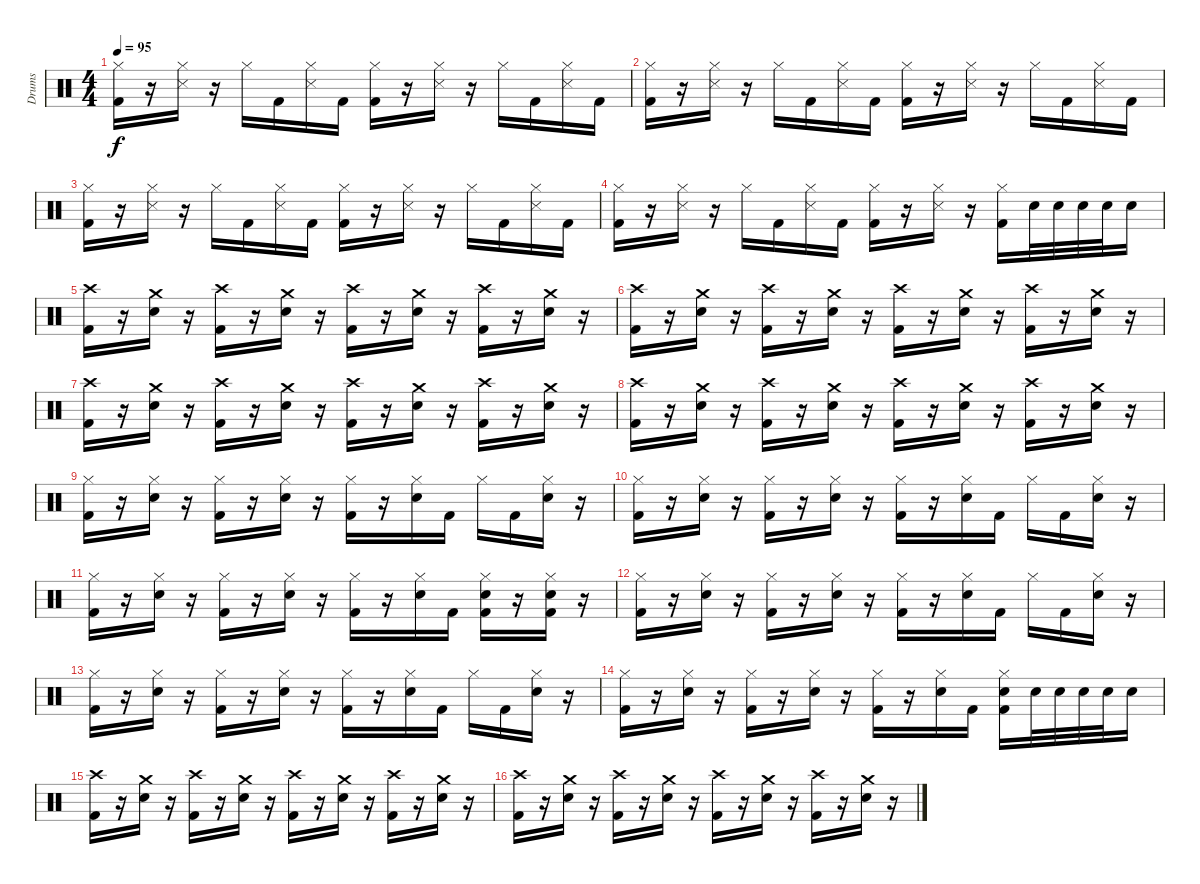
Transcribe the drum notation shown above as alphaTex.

\track ("Drums" "Drums") {instrument percussion}
\staff {score}
\articulation defaults
\ts (4 4)
\tempo 95
\clef neutral
\ks c
("Hi-Hat (closed)" "Kick (hit) 2").16{dy f} r.16 ("Hi-Hat (closed)" "Snare (side stick) 3").16 r.16 "Hi-Hat (closed)".16 "Kick (hit) 2".16 ("Hi-Hat (closed)" "Snare (side stick) 3").16 "Kick (hit) 2".16 ("Hi-Hat (closed)" "Kick (hit) 2").16 r.16 ("Hi-Hat (closed)" "Snare (side stick) 3").16 r.16 "Hi-Hat (closed)".16 "Kick (hit) 2".16 ("Hi-Hat (closed)" "Snare (side stick) 3").16 "Kick (hit) 2".16 |
("Hi-Hat (closed)" "Kick (hit) 2").16 r.16 ("Hi-Hat (closed)" "Snare (side stick) 3").16 r.16 "Hi-Hat (closed)".16 "Kick (hit) 2".16 ("Hi-Hat (closed)" "Snare (side stick) 3").16 "Kick (hit) 2".16 ("Hi-Hat (closed)" "Kick (hit) 2").16 r.16 ("Hi-Hat (closed)" "Snare (side stick) 3").16 r.16 "Hi-Hat (closed)".16 "Kick (hit) 2".16 ("Hi-Hat (closed)" "Snare (side stick) 3").16 "Kick (hit) 2".16 |
("Hi-Hat (closed)" "Kick (hit) 2").16 r.16 ("Hi-Hat (closed)" "Snare (side stick) 3").16 r.16 "Hi-Hat (closed)".16 "Kick (hit) 2".16 ("Hi-Hat (closed)" "Snare (side stick) 3").16 "Kick (hit) 2".16 ("Hi-Hat (closed)" "Kick (hit) 2").16 r.16 ("Hi-Hat (closed)" "Snare (side stick) 3").16 r.16 "Hi-Hat (closed)".16 "Kick (hit) 2".16 ("Hi-Hat (closed)" "Snare (side stick) 3").16 "Kick (hit) 2".16 |
("Hi-Hat (closed)" "Kick (hit) 2").16 r.16 ("Hi-Hat (closed)" "Snare (side stick) 3").16 r.16 "Hi-Hat (closed)".16 "Kick (hit) 2".16 ("Hi-Hat (closed)" "Snare (side stick) 3").16 "Kick (hit) 2".16 ("Hi-Hat (closed)" "Kick (hit) 2").16 r.16 ("Hi-Hat (closed)" "Snare (side stick) 3").16 r.16 ("Hi-Hat (closed)" "Kick (hit) 2").16 "Snare (hit) 2".32 "Snare (hit) 2".32 "Snare (hit) 2".32 "Snare (hit) 2".32 "Snare (hit) 2".16 |
("Crash high (hit)" "Kick (hit) 2").16 r.16 ("Crash medium (hit)" "Snare (hit) 2").16 r.16 ("Crash high (hit)" "Kick (hit) 2").16 r.16 ("Crash medium (hit)" "Snare (hit) 2").16 r.16 ("Crash high (hit)" "Kick (hit) 2").16 r.16 ("Crash medium (hit)" "Snare (hit) 2").16 r.16 ("Crash high (hit)" "Kick (hit) 2").16 r.16 ("Crash medium (hit)" "Snare (hit) 2").16 r.16 |
("Crash high (hit)" "Kick (hit) 2").16 r.16 ("Crash medium (hit)" "Snare (hit) 2").16 r.16 ("Crash high (hit)" "Kick (hit) 2").16 r.16 ("Crash medium (hit)" "Snare (hit) 2").16 r.16 ("Crash high (hit)" "Kick (hit) 2").16 r.16 ("Crash medium (hit)" "Snare (hit) 2").16 r.16 ("Crash high (hit)" "Kick (hit) 2").16 r.16 ("Crash medium (hit)" "Snare (hit) 2").16 r.16 |
("Crash high (hit)" "Kick (hit) 2").16 r.16 ("Crash medium (hit)" "Snare (hit) 2").16 r.16 ("Crash high (hit)" "Kick (hit) 2").16 r.16 ("Crash medium (hit)" "Snare (hit) 2").16 r.16 ("Crash high (hit)" "Kick (hit) 2").16 r.16 ("Crash medium (hit)" "Snare (hit) 2").16 r.16 ("Crash high (hit)" "Kick (hit) 2").16 r.16 ("Crash medium (hit)" "Snare (hit) 2").16 r.16 |
("Crash high (hit)" "Kick (hit) 2").16 r.16 ("Crash medium (hit)" "Snare (hit) 2").16 r.16 ("Crash high (hit)" "Kick (hit) 2").16 r.16 ("Crash medium (hit)" "Snare (hit) 2").16 r.16 ("Crash high (hit)" "Kick (hit) 2").16 r.16 ("Crash medium (hit)" "Snare (hit) 2").16 r.16 ("Crash high (hit)" "Kick (hit) 2").16 r.16 ("Crash medium (hit)" "Snare (hit) 2").16 r.16 |
("Hi-Hat (closed)" "Kick (hit) 2").16 r.16 ("Hi-Hat (closed)" "Snare (hit) 2").16 r.16 ("Hi-Hat (closed)" "Kick (hit) 2").16 r.16 ("Hi-Hat (closed)" "Snare (hit) 2").16 r.16 ("Hi-Hat (closed)" "Kick (hit) 2").16 r.16 ("Hi-Hat (closed)" "Snare (hit) 2").16 "Kick (hit) 2".16 "Hi-Hat (closed)".16 "Kick (hit) 2".16 ("Hi-Hat (closed)" "Snare (hit) 2").16 r.16 |
("Hi-Hat (closed)" "Kick (hit) 2").16 r.16 ("Hi-Hat (closed)" "Snare (hit) 2").16 r.16 ("Hi-Hat (closed)" "Kick (hit) 2").16 r.16 ("Hi-Hat (closed)" "Snare (hit) 2").16 r.16 ("Hi-Hat (closed)" "Kick (hit) 2").16 r.16 ("Hi-Hat (closed)" "Snare (hit) 2").16 "Kick (hit) 2".16 "Hi-Hat (closed)".16 "Kick (hit) 2".16 ("Hi-Hat (closed)" "Snare (hit) 2").16 r.16 |
("Hi-Hat (closed)" "Kick (hit) 2").16 r.16 ("Hi-Hat (closed)" "Snare (hit) 2").16 r.16 ("Hi-Hat (closed)" "Kick (hit) 2").16 r.16 ("Hi-Hat (closed)" "Snare (hit) 2").16 r.16 ("Hi-Hat (closed)" "Kick (hit) 2").16 r.16 ("Hi-Hat (closed)" "Snare (hit) 2").16 "Kick (hit) 2".16 ("Hi-Hat (closed)" "Snare (hit) 2" "Kick (hit) 2").16 r.16 ("Hi-Hat (closed)" "Snare (hit) 2" "Kick (hit) 2").16 r.16 |
("Hi-Hat (closed)" "Kick (hit) 2").16 r.16 ("Hi-Hat (closed)" "Snare (hit) 2").16 r.16 ("Hi-Hat (closed)" "Kick (hit) 2").16 r.16 ("Hi-Hat (closed)" "Snare (hit) 2").16 r.16 ("Hi-Hat (closed)" "Kick (hit) 2").16 r.16 ("Hi-Hat (closed)" "Snare (hit) 2").16 "Kick (hit) 2".16 "Hi-Hat (closed)".16 "Kick (hit) 2".16 ("Hi-Hat (closed)" "Snare (hit) 2").16 r.16 |
("Hi-Hat (closed)" "Kick (hit) 2").16 r.16 ("Hi-Hat (closed)" "Snare (hit) 2").16 r.16 ("Hi-Hat (closed)" "Kick (hit) 2").16 r.16 ("Hi-Hat (closed)" "Snare (hit) 2").16 r.16 ("Hi-Hat (closed)" "Kick (hit) 2").16 r.16 ("Hi-Hat (closed)" "Snare (hit) 2").16 "Kick (hit) 2".16 "Hi-Hat (closed)".16 "Kick (hit) 2".16 ("Hi-Hat (closed)" "Snare (hit) 2").16 r.16 |
("Hi-Hat (closed)" "Kick (hit) 2").16 r.16 ("Hi-Hat (closed)" "Snare (hit) 2").16 r.16 ("Hi-Hat (closed)" "Kick (hit) 2").16 r.16 ("Hi-Hat (closed)" "Snare (hit) 2").16 r.16 ("Hi-Hat (closed)" "Kick (hit) 2").16 r.16 ("Hi-Hat (closed)" "Snare (hit) 2").16 "Kick (hit) 2".16 ("Hi-Hat (closed)" "Snare (hit) 2" "Kick (hit) 2").16 "Snare (hit) 2".32 "Snare (hit) 2".32 "Snare (hit) 2".32 "Snare (hit) 2".32 "Snare (hit) 2".16 |
("Crash high (hit)" "Kick (hit) 2").16 r.16 ("Crash medium (hit)" "Snare (hit) 2").16 r.16 ("Crash high (hit)" "Kick (hit) 2").16 r.16 ("Crash medium (hit)" "Snare (hit) 2").16 r.16 ("Crash high (hit)" "Kick (hit) 2").16 r.16 ("Crash medium (hit)" "Snare (hit) 2").16 r.16 ("Crash high (hit)" "Kick (hit) 2").16 r.16 ("Crash medium (hit)" "Snare (hit) 2").16 r.16 |
("Crash high (hit)" "Kick (hit) 2").16 r.16 ("Crash medium (hit)" "Snare (hit) 2").16 r.16 ("Crash high (hit)" "Kick (hit) 2").16 r.16 ("Crash medium (hit)" "Snare (hit) 2").16 r.16 ("Crash high (hit)" "Kick (hit) 2").16 r.16 ("Crash medium (hit)" "Snare (hit) 2").16 r.16 ("Crash high (hit)" "Kick (hit) 2").16 r.16 ("Crash medium (hit)" "Snare (hit) 2").16 r.16
